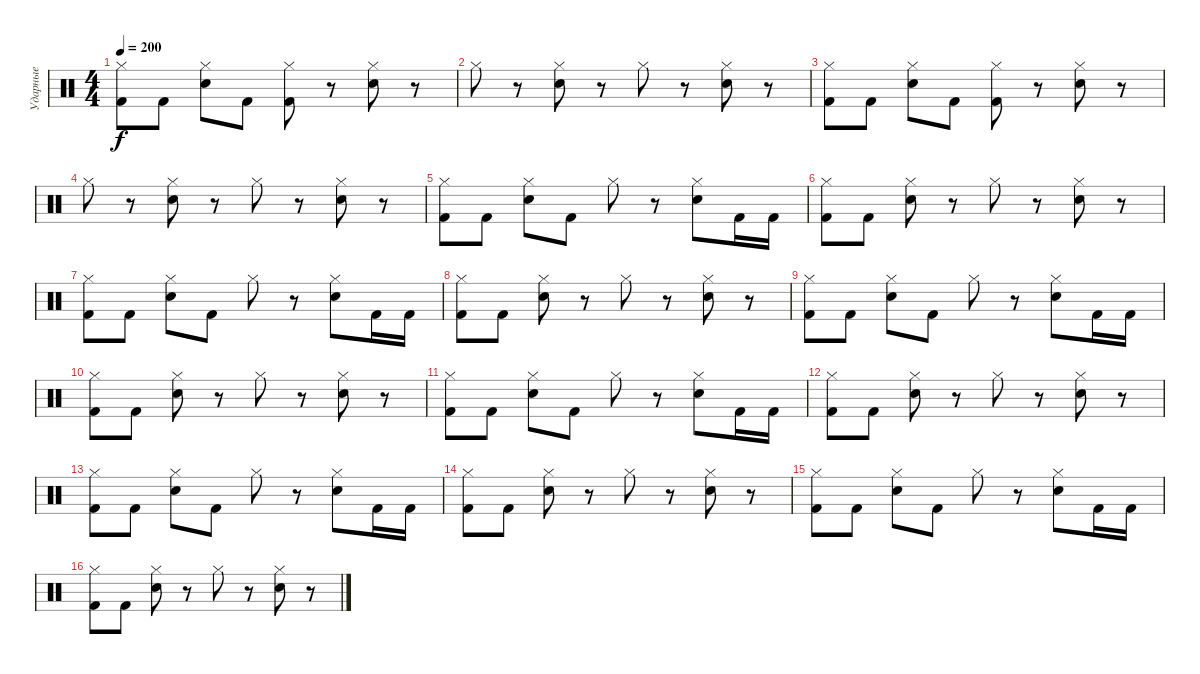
\track ("Ударные" "Ударные") {instrument percussion}
\staff {score}
\articulation defaults
\ts (4 4)
\tempo 200
\clef neutral
\ks c
("Hi-Hat (closed)" "Kick (hit) 2").8{dy f} "Kick (hit) 2".8 ("Hi-Hat (closed)" "Electric Snare (hit)").8 "Kick (hit) 2".8 ("Hi-Hat (closed)" "Kick (hit) 2").8 r.8 ("Hi-Hat (closed)" "Electric Snare (hit)").8 r.8 |
"Hi-Hat (closed)".8 r.8 ("Hi-Hat (closed)" "Electric Snare (hit)").8 r.8 "Hi-Hat (closed)".8 r.8 ("Hi-Hat (closed)" "Electric Snare (hit)").8 r.8 |
("Hi-Hat (closed)" "Kick (hit) 2").8 "Kick (hit) 2".8 ("Hi-Hat (closed)" "Electric Snare (hit)").8 "Kick (hit) 2".8 ("Hi-Hat (closed)" "Kick (hit) 2").8 r.8 ("Hi-Hat (closed)" "Electric Snare (hit)").8 r.8 |
"Hi-Hat (closed)".8 r.8 ("Hi-Hat (closed)" "Electric Snare (hit)").8 r.8 "Hi-Hat (closed)".8 r.8 ("Hi-Hat (closed)" "Electric Snare (hit)").8 r.8 |
("Hi-Hat (closed)" "Kick (hit) 2").8 "Kick (hit) 2".8 ("Hi-Hat (closed)" "Electric Snare (hit)").8 "Kick (hit) 2".8 "Hi-Hat (closed)".8 r.8 ("Hi-Hat (closed)" "Electric Snare (hit)").8 "Kick (hit) 2".16 "Kick (hit) 2".16 |
("Hi-Hat (closed)" "Kick (hit) 2").8 "Kick (hit) 2".8 ("Hi-Hat (closed)" "Electric Snare (hit)").8 r.8 "Hi-Hat (closed)".8 r.8 ("Hi-Hat (closed)" "Electric Snare (hit)").8 r.8 |
("Hi-Hat (closed)" "Kick (hit) 2").8 "Kick (hit) 2".8 ("Hi-Hat (closed)" "Electric Snare (hit)").8 "Kick (hit) 2".8 "Hi-Hat (closed)".8 r.8 ("Hi-Hat (closed)" "Electric Snare (hit)").8 "Kick (hit) 2".16 "Kick (hit) 2".16 |
("Hi-Hat (closed)" "Kick (hit) 2").8 "Kick (hit) 2".8 ("Hi-Hat (closed)" "Electric Snare (hit)").8 r.8 "Hi-Hat (closed)".8 r.8 ("Hi-Hat (closed)" "Electric Snare (hit)").8 r.8 |
("Hi-Hat (closed)" "Kick (hit) 2").8 "Kick (hit) 2".8 ("Hi-Hat (closed)" "Electric Snare (hit)").8 "Kick (hit) 2".8 "Hi-Hat (closed)".8 r.8 ("Hi-Hat (closed)" "Electric Snare (hit)").8 "Kick (hit) 2".16 "Kick (hit) 2".16 |
("Hi-Hat (closed)" "Kick (hit) 2").8 "Kick (hit) 2".8 ("Hi-Hat (closed)" "Electric Snare (hit)").8 r.8 "Hi-Hat (closed)".8 r.8 ("Hi-Hat (closed)" "Electric Snare (hit)").8 r.8 |
("Hi-Hat (closed)" "Kick (hit) 2").8 "Kick (hit) 2".8 ("Hi-Hat (closed)" "Electric Snare (hit)").8 "Kick (hit) 2".8 "Hi-Hat (closed)".8 r.8 ("Hi-Hat (closed)" "Electric Snare (hit)").8 "Kick (hit) 2".16 "Kick (hit) 2".16 |
("Hi-Hat (closed)" "Kick (hit) 2").8 "Kick (hit) 2".8 ("Hi-Hat (closed)" "Electric Snare (hit)").8 r.8 "Hi-Hat (closed)".8 r.8 ("Hi-Hat (closed)" "Electric Snare (hit)").8 r.8 |
("Hi-Hat (closed)" "Kick (hit) 2").8 "Kick (hit) 2".8 ("Hi-Hat (closed)" "Electric Snare (hit)").8 "Kick (hit) 2".8 "Hi-Hat (closed)".8 r.8 ("Hi-Hat (closed)" "Electric Snare (hit)").8 "Kick (hit) 2".16 "Kick (hit) 2".16 |
("Hi-Hat (closed)" "Kick (hit) 2").8 "Kick (hit) 2".8 ("Hi-Hat (closed)" "Electric Snare (hit)").8 r.8 "Hi-Hat (closed)".8 r.8 ("Hi-Hat (closed)" "Electric Snare (hit)").8 r.8 |
("Hi-Hat (closed)" "Kick (hit) 2").8 "Kick (hit) 2".8 ("Hi-Hat (closed)" "Electric Snare (hit)").8 "Kick (hit) 2".8 "Hi-Hat (closed)".8 r.8 ("Hi-Hat (closed)" "Electric Snare (hit)").8 "Kick (hit) 2".16 "Kick (hit) 2".16 |
("Hi-Hat (closed)" "Kick (hit) 2").8 "Kick (hit) 2".8 ("Hi-Hat (closed)" "Electric Snare (hit)").8 r.8 "Hi-Hat (closed)".8 r.8 ("Hi-Hat (closed)" "Electric Snare (hit)").8 r.8
